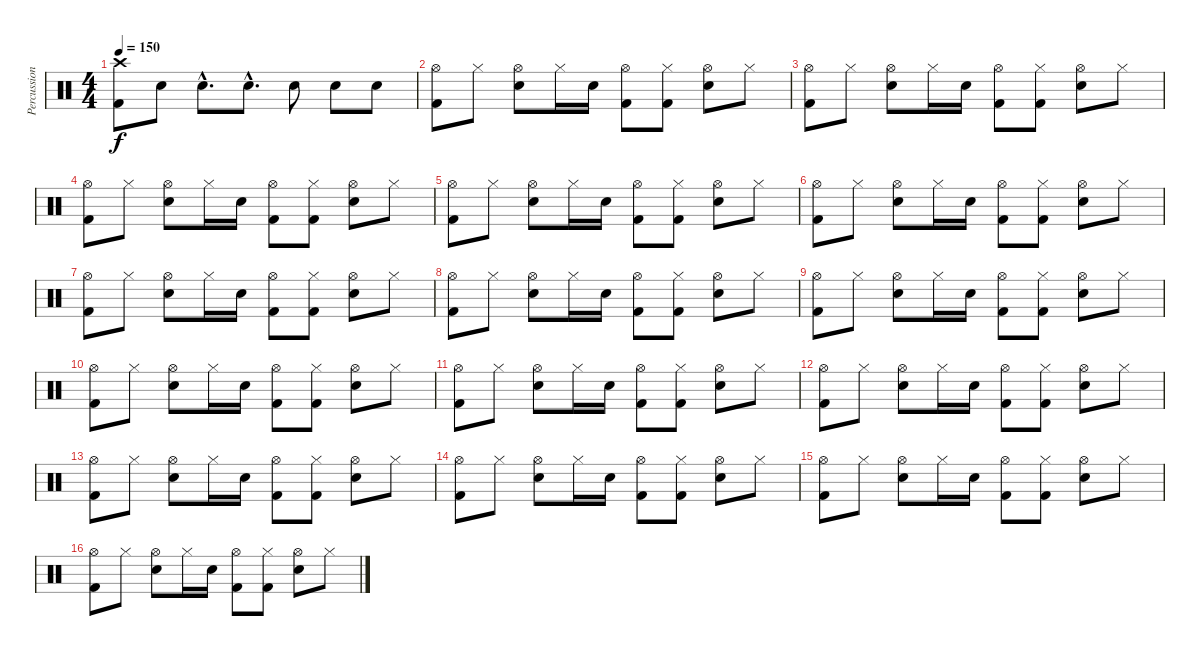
\track ("Percussion" "Percussion") {instrument percussion}
\staff {score}
\articulation defaults
\ts (4 4)
\tempo 150
\clef neutral
\ks c
("Crash high (hit)" "Kick (hit) 2").8{dy f} "Electric Snare (hit)".8 "Electric Snare (hit)"{hac}.8{d} "Electric Snare (hit)"{hac}.8{d} "Electric Snare (hit)".8 "Electric Snare (hit)".8 "Electric Snare (hit)".8 |
("Hi-Hat (open)" "Kick (hit) 2").8 "Hi-Hat (closed)".8 ("Hi-Hat (open)" "Electric Snare (hit)").8 "Hi-Hat (closed)".16 "Electric Snare (hit)".16 ("Hi-Hat (open)" "Kick (hit) 2").8 ("Hi-Hat (closed)" "Kick (hit) 2").8 ("Hi-Hat (open)" "Electric Snare (hit)").8 "Hi-Hat (closed)".8 |
("Hi-Hat (open)" "Kick (hit) 2").8 "Hi-Hat (closed)".8 ("Hi-Hat (open)" "Electric Snare (hit)").8 "Hi-Hat (closed)".16 "Electric Snare (hit)".16 ("Hi-Hat (open)" "Kick (hit) 2").8 ("Hi-Hat (closed)" "Kick (hit) 2").8 ("Hi-Hat (open)" "Electric Snare (hit)").8 "Hi-Hat (closed)".8 |
("Hi-Hat (open)" "Kick (hit) 2").8 "Hi-Hat (closed)".8 ("Hi-Hat (open)" "Electric Snare (hit)").8 "Hi-Hat (closed)".16 "Electric Snare (hit)".16 ("Hi-Hat (open)" "Kick (hit) 2").8 ("Hi-Hat (closed)" "Kick (hit) 2").8 ("Hi-Hat (open)" "Electric Snare (hit)").8 "Hi-Hat (closed)".8 |
("Hi-Hat (open)" "Kick (hit) 2").8 "Hi-Hat (closed)".8 ("Hi-Hat (open)" "Electric Snare (hit)").8 "Hi-Hat (closed)".16 "Electric Snare (hit)".16 ("Hi-Hat (open)" "Kick (hit) 2").8 ("Hi-Hat (closed)" "Kick (hit) 2").8 ("Hi-Hat (open)" "Electric Snare (hit)").8 "Hi-Hat (closed)".8 |
("Hi-Hat (open)" "Kick (hit) 2").8 "Hi-Hat (closed)".8 ("Hi-Hat (open)" "Electric Snare (hit)").8 "Hi-Hat (closed)".16 "Electric Snare (hit)".16 ("Hi-Hat (open)" "Kick (hit) 2").8 ("Hi-Hat (closed)" "Kick (hit) 2").8 ("Hi-Hat (open)" "Electric Snare (hit)").8 "Hi-Hat (closed)".8 |
("Hi-Hat (open)" "Kick (hit) 2").8 "Hi-Hat (closed)".8 ("Hi-Hat (open)" "Electric Snare (hit)").8 "Hi-Hat (closed)".16 "Electric Snare (hit)".16 ("Hi-Hat (open)" "Kick (hit) 2").8 ("Hi-Hat (closed)" "Kick (hit) 2").8 ("Hi-Hat (open)" "Electric Snare (hit)").8 "Hi-Hat (closed)".8 |
("Hi-Hat (open)" "Kick (hit) 2").8 "Hi-Hat (closed)".8 ("Hi-Hat (open)" "Electric Snare (hit)").8 "Hi-Hat (closed)".16 "Electric Snare (hit)".16 ("Hi-Hat (open)" "Kick (hit) 2").8 ("Hi-Hat (closed)" "Kick (hit) 2").8 ("Hi-Hat (open)" "Electric Snare (hit)").8 "Hi-Hat (closed)".8 |
("Hi-Hat (open)" "Kick (hit) 2").8 "Hi-Hat (closed)".8 ("Hi-Hat (open)" "Electric Snare (hit)").8 "Hi-Hat (closed)".16 "Electric Snare (hit)".16 ("Hi-Hat (open)" "Kick (hit) 2").8 ("Hi-Hat (closed)" "Kick (hit) 2").8 ("Hi-Hat (open)" "Electric Snare (hit)").8 "Hi-Hat (closed)".8 |
("Hi-Hat (open)" "Kick (hit) 2").8 "Hi-Hat (closed)".8 ("Hi-Hat (open)" "Electric Snare (hit)").8 "Hi-Hat (closed)".16 "Electric Snare (hit)".16 ("Hi-Hat (open)" "Kick (hit) 2").8 ("Hi-Hat (closed)" "Kick (hit) 2").8 ("Hi-Hat (open)" "Electric Snare (hit)").8 "Hi-Hat (closed)".8 |
("Hi-Hat (open)" "Kick (hit) 2").8 "Hi-Hat (closed)".8 ("Hi-Hat (open)" "Electric Snare (hit)").8 "Hi-Hat (closed)".16 "Electric Snare (hit)".16 ("Hi-Hat (open)" "Kick (hit) 2").8 ("Hi-Hat (closed)" "Kick (hit) 2").8 ("Hi-Hat (open)" "Electric Snare (hit)").8 "Hi-Hat (closed)".8 |
("Hi-Hat (open)" "Kick (hit) 2").8 "Hi-Hat (closed)".8 ("Hi-Hat (open)" "Electric Snare (hit)").8 "Hi-Hat (closed)".16 "Electric Snare (hit)".16 ("Hi-Hat (open)" "Kick (hit) 2").8 ("Hi-Hat (closed)" "Kick (hit) 2").8 ("Hi-Hat (open)" "Electric Snare (hit)").8 "Hi-Hat (closed)".8 |
("Hi-Hat (open)" "Kick (hit) 2").8 "Hi-Hat (closed)".8 ("Hi-Hat (open)" "Electric Snare (hit)").8 "Hi-Hat (closed)".16 "Electric Snare (hit)".16 ("Hi-Hat (open)" "Kick (hit) 2").8 ("Hi-Hat (closed)" "Kick (hit) 2").8 ("Hi-Hat (open)" "Electric Snare (hit)").8 "Hi-Hat (closed)".8 |
("Hi-Hat (open)" "Kick (hit) 2").8 "Hi-Hat (closed)".8 ("Hi-Hat (open)" "Electric Snare (hit)").8 "Hi-Hat (closed)".16 "Electric Snare (hit)".16 ("Hi-Hat (open)" "Kick (hit) 2").8 ("Hi-Hat (closed)" "Kick (hit) 2").8 ("Hi-Hat (open)" "Electric Snare (hit)").8 "Hi-Hat (closed)".8 |
("Hi-Hat (open)" "Kick (hit) 2").8 "Hi-Hat (closed)".8 ("Hi-Hat (open)" "Electric Snare (hit)").8 "Hi-Hat (closed)".16 "Electric Snare (hit)".16 ("Hi-Hat (open)" "Kick (hit) 2").8 ("Hi-Hat (closed)" "Kick (hit) 2").8 ("Hi-Hat (open)" "Electric Snare (hit)").8 "Hi-Hat (closed)".8 |
("Hi-Hat (open)" "Kick (hit) 2").8 "Hi-Hat (closed)".8 ("Hi-Hat (open)" "Electric Snare (hit)").8 "Hi-Hat (closed)".16 "Electric Snare (hit)".16 ("Hi-Hat (open)" "Kick (hit) 2").8 ("Hi-Hat (closed)" "Kick (hit) 2").8 ("Hi-Hat (open)" "Electric Snare (hit)").8 "Hi-Hat (closed)".8
